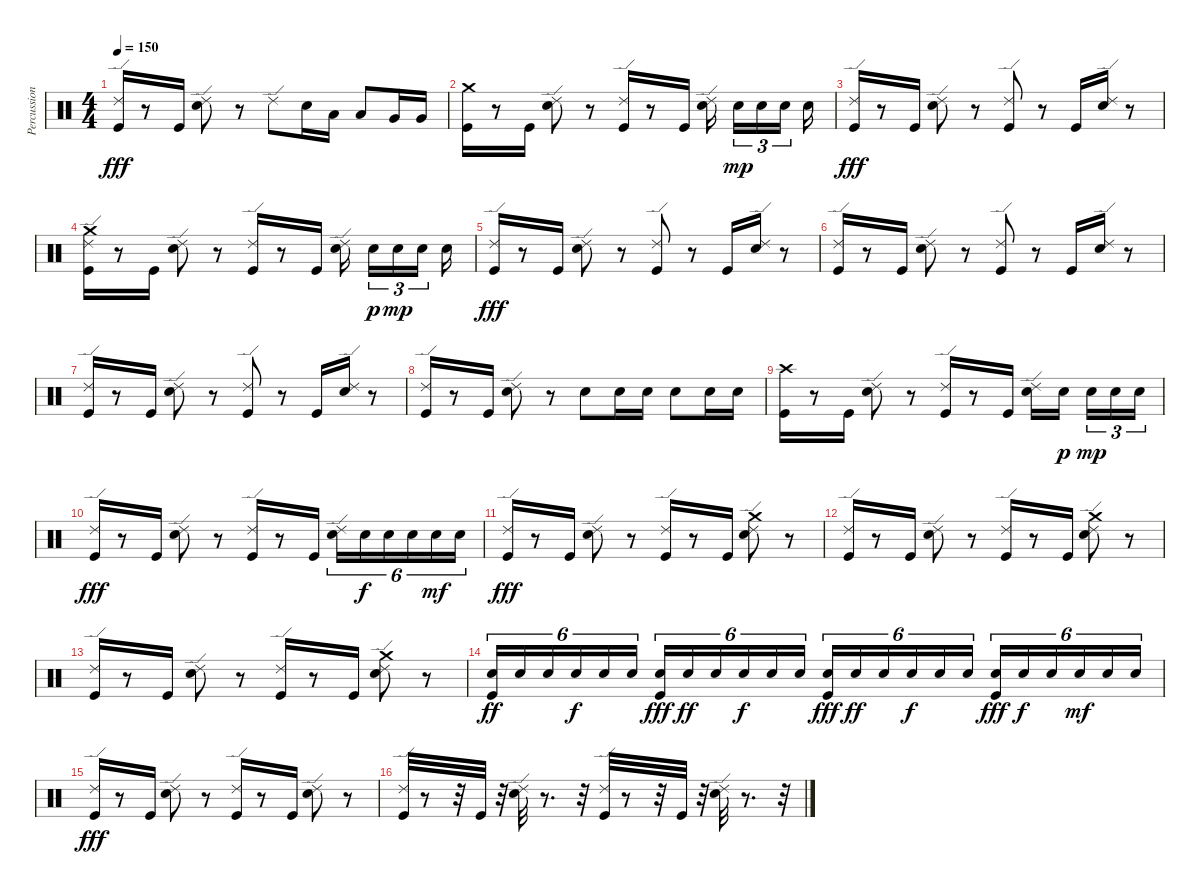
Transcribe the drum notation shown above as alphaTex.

\track ("Percussion" "Percussion") {instrument percussion}
\staff {score}
\articulation defaults
\ts (4 4)
\tempo 150
\clef neutral
\ks c
("Ride (edge) 2" "Kick (hit)").16{dy fff} r.8 "Kick (hit)".16 ("Ride (edge) 2" "Electric Snare (hit)").8 r.8 "Ride (edge) 2".8 "Electric Snare (hit)".16 "Low Tom (hit)".16 "Low Tom (hit)".8 "Very Low Tom (hit)".16 "Very Low Tom (hit)".16 |
("Kick (hit)" "Crash medium (hit)").16 r.8 "Kick (hit)".16 ("Ride (edge) 2" "Electric Snare (hit)").8 r.8 ("Ride (edge) 2" "Kick (hit)").16 r.8 "Kick (hit)".16 ("Ride (edge) 2" "Electric Snare (hit)").16 "Electric Snare (hit)".16{tu (3 2) dy mp} "Electric Snare (hit)".16{tu (3 2)} "Electric Snare (hit)".16{tu (3 2)} "Electric Snare (hit)".16 |
("Kick (hit)" "Ride (edge) 2").16{dy fff} r.8 "Kick (hit)".16 ("Ride (edge) 2" "Electric Snare (hit)").8 r.8 ("Kick (hit)" "Ride (edge) 2").8 r.8 "Kick (hit)".16 ("Ride (edge) 2" "Electric Snare (hit)").16 r.8 |
("Crash medium (hit)" "Kick (hit)" "Ride (edge) 2").16 r.8 "Kick (hit)".16 ("Ride (edge) 2" "Electric Snare (hit)").8 r.8 ("Kick (hit)" "Ride (edge) 2").16 r.8 "Kick (hit)".16 ("Electric Snare (hit)" "Ride (edge) 2").16 "Electric Snare (hit)".16{tu (3 2) dy p} "Electric Snare (hit)".16{tu (3 2) dy mp} "Electric Snare (hit)".16{tu (3 2)} "Electric Snare (hit)".16 |
("Kick (hit)" "Ride (edge) 2").16{dy fff} r.8 "Kick (hit)".16 ("Ride (edge) 2" "Electric Snare (hit)").8 r.8 ("Kick (hit)" "Ride (edge) 2").8 r.8 "Kick (hit)".16 ("Ride (edge) 2" "Electric Snare (hit)").16 r.8 |
("Kick (hit)" "Ride (edge) 2").16 r.8 "Kick (hit)".16 ("Ride (edge) 2" "Electric Snare (hit)").8 r.8 ("Kick (hit)" "Ride (edge) 2").8 r.8 "Kick (hit)".16 ("Ride (edge) 2" "Electric Snare (hit)").16 r.8 |
("Kick (hit)" "Ride (edge) 2").16 r.8 "Kick (hit)".16 ("Ride (edge) 2" "Electric Snare (hit)").8 r.8 ("Kick (hit)" "Ride (edge) 2").8 r.8 "Kick (hit)".16 ("Ride (edge) 2" "Electric Snare (hit)").16 r.8 |
("Kick (hit)" "Ride (edge) 2").16 r.8 "Kick (hit)".16 ("Electric Snare (hit)" "Ride (edge) 2").8 r.8 "Electric Snare (hit)".8 "Electric Snare (hit)".16 "Electric Snare (hit)".16 "Electric Snare (hit)".8 "Electric Snare (hit)".16 "Electric Snare (hit)".16 |
("Crash high (hit)" "Kick (hit)").16 r.8 "Kick (hit)".16 ("Ride (edge) 2" "Electric Snare (hit)").8 r.8 ("Ride (edge) 2" "Kick (hit)").16 r.8 "Kick (hit)".16 ("Ride (edge) 2" "Electric Snare (hit)").16 "Electric Snare (hit)".16{dy p} "Electric Snare (hit)".16{tu (3 2) dy mp} "Electric Snare (hit)".16{tu (3 2)} "Electric Snare (hit)".16{tu (3 2)} |
("Ride (edge) 2" "Kick (hit)").16{dy fff} r.8 "Kick (hit)".16 ("Electric Snare (hit)" "Ride (edge) 2").8 r.8 ("Ride (edge) 2" "Kick (hit)").16 r.8 "Kick (hit)".16 ("Ride (edge) 2" "Electric Snare (hit)").16{tu (6 4)} "Electric Snare (hit)".16{tu (6 4) dy f} "Electric Snare (hit)".16{tu (6 4)} "Electric Snare (hit)".16{tu (6 4)} "Electric Snare (hit)".16{tu (6 4) dy mf} "Electric Snare (hit)".16{tu (6 4)} |
("Kick (hit)" "Ride (edge) 2").16{dy fff} r.8 "Kick (hit)".16 ("Electric Snare (hit)" "Ride (edge) 2").8 r.8 ("Kick (hit)" "Ride (edge) 2").16 r.8 "Kick (hit)".16 ("Electric Snare (hit)" "Crash medium (hit)" "Ride (edge) 2").8 r.8 |
("Kick (hit)" "Ride (edge) 2").16 r.8 "Kick (hit)".16 ("Electric Snare (hit)" "Ride (edge) 2").8 r.8 ("Kick (hit)" "Ride (edge) 2").16 r.8 "Kick (hit)".16 ("Electric Snare (hit)" "Crash medium (hit)" "Ride (edge) 2").8 r.8 |
("Kick (hit)" "Ride (edge) 2").16 r.8 "Kick (hit)".16 ("Electric Snare (hit)" "Ride (edge) 2").8 r.8 ("Kick (hit)" "Ride (edge) 2").16 r.8 "Kick (hit)".16 ("Electric Snare (hit)" "Crash medium (hit)" "Ride (edge) 2").8 r.8 |
("Kick (hit)" "Electric Snare (hit)").16{tu (6 4) dy ff} "Electric Snare (hit)".16{tu (6 4)} "Electric Snare (hit)".16{tu (6 4)} "Electric Snare (hit)".16{tu (6 4) dy f} "Electric Snare (hit)".16{tu (6 4)} "Electric Snare (hit)".16{tu (6 4)} ("Electric Snare (hit)" "Kick (hit)").16{tu (6 4) dy fff} "Electric Snare (hit)".16{tu (6 4) dy ff} "Electric Snare (hit)".16{tu (6 4)} "Electric Snare (hit)".16{tu (6 4) dy f} "Electric Snare (hit)".16{tu (6 4)} "Electric Snare (hit)".16{tu (6 4)} ("Electric Snare (hit)" "Kick (hit)").16{tu (6 4) dy fff} "Electric Snare (hit)".16{tu (6 4) dy ff} "Electric Snare (hit)".16{tu (6 4)} "Electric Snare (hit)".16{tu (6 4) dy f} "Electric Snare (hit)".16{tu (6 4)} "Electric Snare (hit)".16{tu (6 4)} ("Electric Snare (hit)" "Kick (hit)").16{tu (6 4) dy fff} "Electric Snare (hit)".16{tu (6 4) dy f} "Electric Snare (hit)".16{tu (6 4)} "Electric Snare (hit)".16{tu (6 4) dy mf} "Electric Snare (hit)".16{tu (6 4)} "Electric Snare (hit)".16{tu (6 4)} |
("Kick (hit)" "Ride (edge) 2").16{dy fff} r.8 "Kick (hit)".16 ("Electric Snare (hit)" "Ride (edge) 2").8 r.8 ("Kick (hit)" "Ride (edge) 2").16 r.8 "Kick (hit)".16 ("Electric Snare (hit)" "Ride (edge) 2").8 r.8 |
("Ride (edge) 2" "Kick (hit)").32 r.8 r.32 "Kick (hit)".32 r.32 ("Ride (edge) 2" "Electric Snare (hit)").32 r.8{d} r.32 ("Kick (hit)" "Ride (edge) 2").32 r.8 r.32 "Kick (hit)".32 r.32 ("Ride (edge) 2" "Electric Snare (hit)").32 r.8{d} r.32
